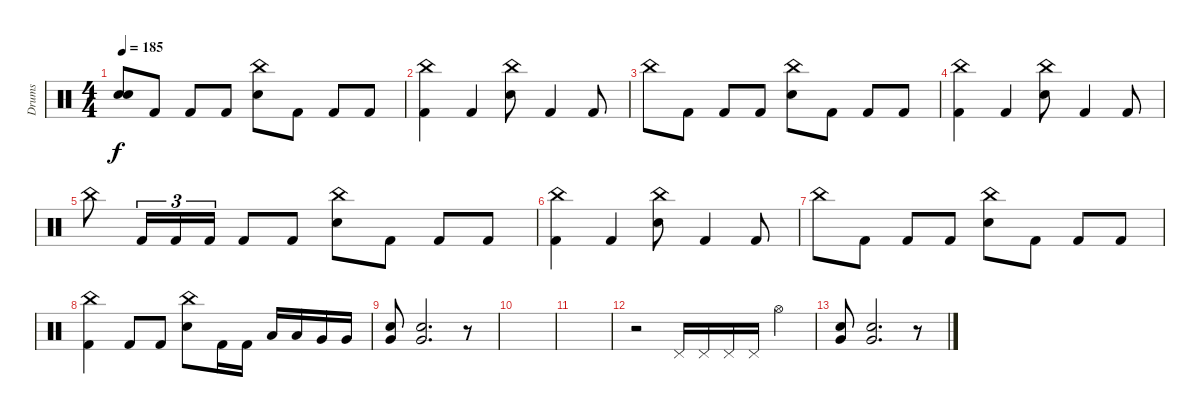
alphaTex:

\track ("Drums" "Drums") {instrument percussion}
\staff {score}
\articulation defaults
\ts (4 4)
\tempo 185
\clef neutral
\ks c
("Snare (hit)"{t} "Snare (hit)"{t}).8{dy f} "Kick (hit) 2".8 "Kick (hit) 2".8 "Kick (hit) 2".8 ("China (hit)" "Electric Snare (hit)").8 "Kick (hit) 2".8 "Kick (hit) 2".8 "Kick (hit) 2".8 |
("China (hit)" "Kick (hit) 2").4 "Kick (hit) 2".4 ("China (hit)" "Electric Snare (hit)").8 "Kick (hit) 2".4 "Kick (hit) 2".8 |
"China (hit)".8 "Kick (hit) 2".8 "Kick (hit) 2".8 "Kick (hit) 2".8 ("China (hit)" "Electric Snare (hit)").8 "Kick (hit) 2".8 "Kick (hit) 2".8 "Kick (hit) 2".8 |
("China (hit)" "Kick (hit) 2").4 "Kick (hit) 2".4 ("China (hit)" "Electric Snare (hit)").8 "Kick (hit) 2".4 "Kick (hit) 2".8 |
"China (hit)".8 "Kick (hit) 2".16{tu (3 2)} "Kick (hit) 2".16{tu (3 2)} "Kick (hit) 2".16{tu (3 2)} "Kick (hit) 2".8 "Kick (hit) 2".8 ("China (hit)" "Electric Snare (hit)").8 "Kick (hit) 2".8 "Kick (hit) 2".8 "Kick (hit) 2".8 |
("China (hit)" "Kick (hit) 2").4 "Kick (hit) 2".4 ("China (hit)" "Electric Snare (hit)").8 "Kick (hit) 2".4 "Kick (hit) 2".8 |
"China (hit)".8 "Kick (hit) 2".8 "Kick (hit) 2".8 "Kick (hit) 2".8 ("China (hit)" "Electric Snare (hit)").8 "Kick (hit) 2".8 "Kick (hit) 2".8 "Kick (hit) 2".8 |
("China (hit)" "Kick (hit) 2").4 "Kick (hit) 2".8 "Kick (hit) 2".8 ("China (hit)" "Electric Snare (hit)").8 "Kick (hit) 2".16 "Kick (hit) 2".16 "Low Tom (hit)".16 "Low Tom (hit)".16 "Very Low Tom (hit)".16 "Very Low Tom (hit)".16 |
("Very Low Tom (hit)" "Electric Snare (hit)").8 ("Very Low Tom (hit)" "Electric Snare (hit)").2{d} r.8 |
|
|
r.2 "Pedal Hi-Hat (hit)".16 "Pedal Hi-Hat (hit)".16 "Pedal Hi-Hat (hit)".16 "Pedal Hi-Hat (hit)".16 "Hi-Hat (open)".4 |
("Very Low Tom (hit)" "Electric Snare (hit)").8 ("Very Low Tom (hit)" "Electric Snare (hit)").2{d} r.8
